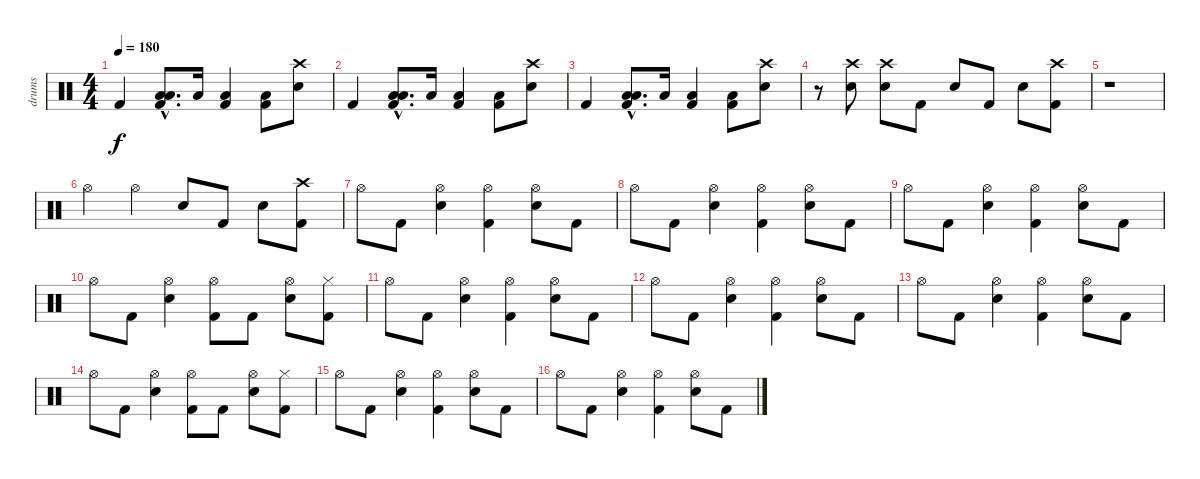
\track ("drums" "drums") {instrument percussion}
\staff {score}
\articulation defaults
\ts (4 4)
\tempo 180
\clef neutral
\ks c "Kick (hit) 2".4{dy f}
("Low Tom (hit)"{hac} "Low Floor Tom (hit)"{hac} "Kick (hit) 2"{hac}).8{d} "Low Tom (hit)".16 ("Low Floor Tom (hit)" "Kick (hit) 2").4 ("Low Floor Tom (hit)" "Kick (hit) 2").8 ("Crash high (hit)" "Electric Snare (hit)").8 |
"Kick (hit) 2".4 ("Low Tom (hit)"{hac} "Low Floor Tom (hit)"{hac} "Kick (hit) 2"{hac}).8{d} "Low Tom (hit)".16 ("Low Floor Tom (hit)" "Kick (hit) 2").4 ("Low Floor Tom (hit)" "Kick (hit) 2").8 ("Crash high (hit)" "Electric Snare (hit)").8 |
"Kick (hit) 2".4 ("Low Tom (hit)"{hac} "Low Floor Tom (hit)"{hac} "Kick (hit) 2"{hac}).8{d} "Low Tom (hit)".16 ("Low Floor Tom (hit)" "Kick (hit) 2").4 ("Low Floor Tom (hit)" "Kick (hit) 2").8 ("Crash high (hit)" "Electric Snare (hit)").8 |
r.8 ("Crash high (hit)" "Electric Snare (hit)").8 ("Crash high (hit)" "Electric Snare (hit)").8 "Kick (hit) 2".8 "Electric Snare (hit)".8 "Kick (hit) 2".8 "Electric Snare (hit)".8 ("Crash high (hit)" "Kick (hit) 2").8 |
r.1 |
"Hi-Hat (open)".4 "Hi-Hat (open)".4 "Electric Snare (hit)".8 "Kick (hit) 2".8 "Electric Snare (hit)".8 ("Crash high (hit)" "Kick (hit) 2").8 |
"Hi-Hat (open)".8 "Kick (hit) 2".8 ("Hi-Hat (open)" "Electric Snare (hit)").4 ("Hi-Hat (open)" "Kick (hit) 2").4 ("Hi-Hat (open)" "Electric Snare (hit)").8 "Kick (hit) 2".8 |
"Hi-Hat (open)".8 "Kick (hit) 2".8 ("Hi-Hat (open)" "Electric Snare (hit)").4 ("Hi-Hat (open)" "Kick (hit) 2").4 ("Hi-Hat (open)" "Electric Snare (hit)").8 "Kick (hit) 2".8 |
"Hi-Hat (open)".8 "Kick (hit) 2".8 ("Hi-Hat (open)" "Electric Snare (hit)").4 ("Hi-Hat (open)" "Kick (hit) 2").4 ("Hi-Hat (open)" "Electric Snare (hit)").8 "Kick (hit) 2".8 |
"Hi-Hat (open)".8 "Kick (hit) 2".8 ("Hi-Hat (open)" "Electric Snare (hit)").4 ("Hi-Hat (open)" "Kick (hit) 2").8 "Kick (hit) 2".8 ("Hi-Hat (open)" "Electric Snare (hit)").8 ("Hi-Hat (closed)" "Kick (hit) 2").8 |
"Hi-Hat (open)".8 "Kick (hit) 2".8 ("Hi-Hat (open)" "Electric Snare (hit)").4 ("Hi-Hat (open)" "Kick (hit) 2").4 ("Hi-Hat (open)" "Electric Snare (hit)").8 "Kick (hit) 2".8 |
"Hi-Hat (open)".8 "Kick (hit) 2".8 ("Hi-Hat (open)" "Electric Snare (hit)").4 ("Hi-Hat (open)" "Kick (hit) 2").4 ("Hi-Hat (open)" "Electric Snare (hit)").8 "Kick (hit) 2".8 |
"Hi-Hat (open)".8 "Kick (hit) 2".8 ("Hi-Hat (open)" "Electric Snare (hit)").4 ("Hi-Hat (open)" "Kick (hit) 2").4 ("Hi-Hat (open)" "Electric Snare (hit)").8 "Kick (hit) 2".8 |
"Hi-Hat (open)".8 "Kick (hit) 2".8 ("Hi-Hat (open)" "Electric Snare (hit)").4 ("Hi-Hat (open)" "Kick (hit) 2").8 "Kick (hit) 2".8 ("Hi-Hat (open)" "Electric Snare (hit)").8 ("Hi-Hat (closed)" "Kick (hit) 2").8 |
"Hi-Hat (open)".8 "Kick (hit) 2".8 ("Hi-Hat (open)" "Electric Snare (hit)").4 ("Hi-Hat (open)" "Kick (hit) 2").4 ("Hi-Hat (open)" "Electric Snare (hit)").8 "Kick (hit) 2".8 |
"Hi-Hat (open)".8 "Kick (hit) 2".8 ("Hi-Hat (open)" "Electric Snare (hit)").4 ("Hi-Hat (open)" "Kick (hit) 2").4 ("Hi-Hat (open)" "Electric Snare (hit)").8 "Kick (hit) 2".8
